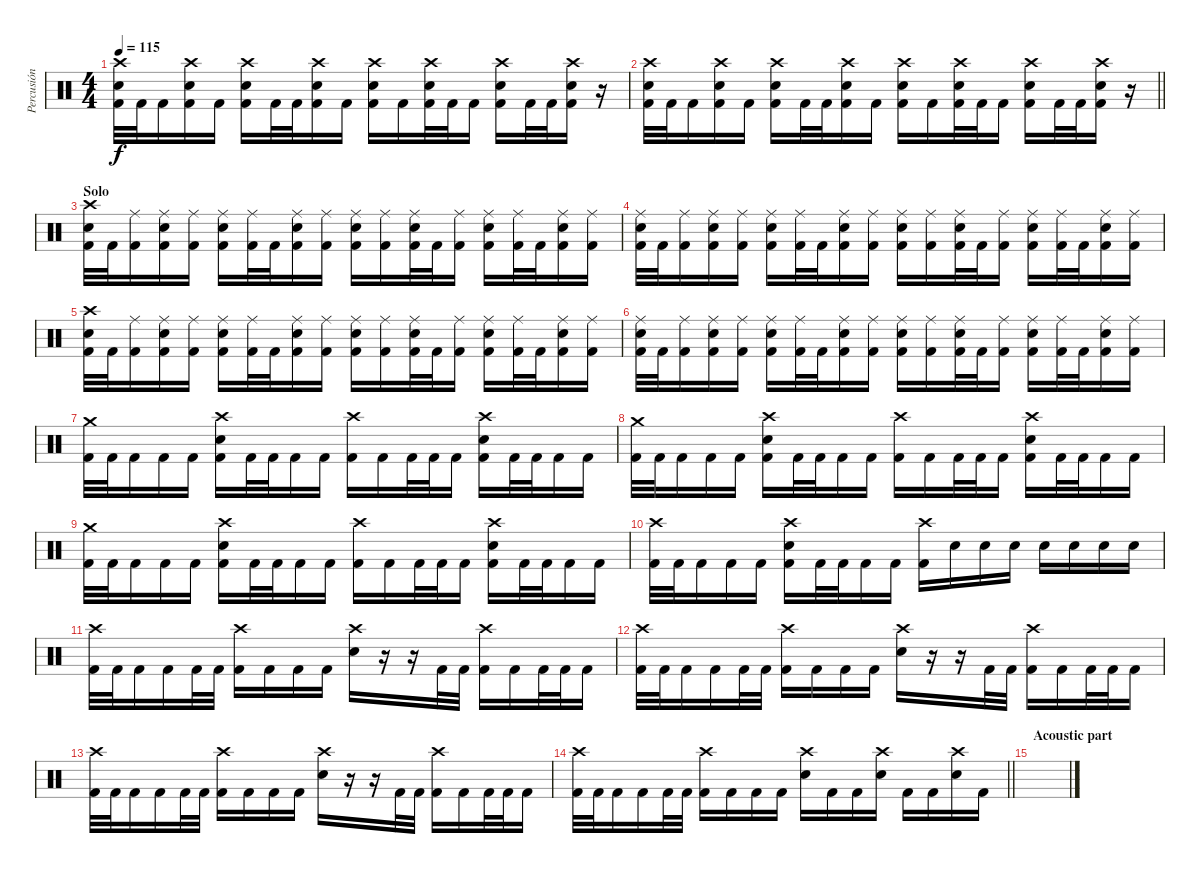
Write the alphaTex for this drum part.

\track ("Percusión" "Percusión") {instrument percussion}
\staff {score}
\articulation defaults
\ts (4 4)
\tempo 115
\clef neutral
\ks c
("Crash high (hit)" "Snare (hit) 2" "Kick (hit) 2").32{dy f} "Kick (hit) 2".32 "Kick (hit) 2".16 ("Crash high (hit)" "Snare (hit) 2" "Kick (hit) 2").16 "Kick (hit) 2".16 ("Crash high (hit)" "Snare (hit) 2" "Kick (hit) 2").16 "Kick (hit) 2".32 "Kick (hit) 2".32 ("Crash high (hit)" "Snare (hit) 2" "Kick (hit) 2").16 "Kick (hit) 2".16 ("Crash high (hit)" "Snare (hit) 2" "Kick (hit) 2").16 "Kick (hit) 2".16 ("Crash high (hit)" "Snare (hit) 2" "Kick (hit) 2").32 "Kick (hit) 2".32 "Kick (hit) 2".16 ("Crash high (hit)" "Snare (hit) 2" "Kick (hit) 2").16 "Kick (hit) 2".32 "Kick (hit) 2".32 ("Crash high (hit)" "Snare (hit) 2" "Kick (hit) 2").16 r.16 |
\barLineRight lightlight
("Crash high (hit)" "Snare (hit) 2" "Kick (hit) 2").32 "Kick (hit) 2".32 "Kick (hit) 2".16 ("Crash high (hit)" "Snare (hit) 2" "Kick (hit) 2").16 "Kick (hit) 2".16 ("Crash high (hit)" "Snare (hit) 2" "Kick (hit) 2").16 "Kick (hit) 2".32 "Kick (hit) 2".32 ("Crash high (hit)" "Snare (hit) 2" "Kick (hit) 2").16 "Kick (hit) 2".16 ("Crash high (hit)" "Snare (hit) 2" "Kick (hit) 2").16 "Kick (hit) 2".16 ("Crash high (hit)" "Snare (hit) 2" "Kick (hit) 2").32 "Kick (hit) 2".32 "Kick (hit) 2".16 ("Crash high (hit)" "Snare (hit) 2" "Kick (hit) 2").16 "Kick (hit) 2".32 "Kick (hit) 2".32 ("Crash high (hit)" "Snare (hit) 2" "Kick (hit) 2").16 r.16 |
\section ("" "Solo")
("Crash high (hit)" "Snare (hit) 2" "Kick (hit) 2").32 "Kick (hit) 2".32 ("Ride (middle)" "Kick (hit) 2").16 ("Ride (middle)" "Snare (hit) 2" "Kick (hit) 2").16 ("Ride (middle)" "Kick (hit) 2").16 ("Ride (middle)" "Snare (hit) 2" "Kick (hit) 2").16 ("Ride (middle)" "Kick (hit) 2").32 "Kick (hit) 2".32 ("Ride (middle)" "Snare (hit) 2" "Kick (hit) 2").16 ("Ride (middle)" "Kick (hit) 2").16 ("Ride (middle)" "Snare (hit) 2" "Kick (hit) 2").16 ("Ride (middle)" "Kick (hit) 2").16 ("Ride (middle)" "Snare (hit) 2" "Kick (hit) 2").32 "Kick (hit) 2".32 ("Ride (middle)" "Kick (hit) 2").16 ("Ride (middle)" "Snare (hit) 2" "Kick (hit) 2").16 ("Ride (middle)" "Kick (hit) 2").32 "Kick (hit) 2".32 ("Ride (middle)" "Snare (hit) 2" "Kick (hit) 2").16 ("Ride (middle)" "Kick (hit) 2").16 |
("Ride (middle)" "Snare (hit) 2" "Kick (hit) 2").32 "Kick (hit) 2".32 ("Ride (middle)" "Kick (hit) 2").16 ("Ride (middle)" "Snare (hit) 2" "Kick (hit) 2").16 ("Ride (middle)" "Kick (hit) 2").16 ("Ride (middle)" "Snare (hit) 2" "Kick (hit) 2").16 ("Ride (middle)" "Kick (hit) 2").32 "Kick (hit) 2".32 ("Ride (middle)" "Snare (hit) 2" "Kick (hit) 2").16 ("Ride (middle)" "Kick (hit) 2").16 ("Ride (middle)" "Snare (hit) 2" "Kick (hit) 2").16 ("Ride (middle)" "Kick (hit) 2").16 ("Ride (middle)" "Snare (hit) 2" "Kick (hit) 2").32 "Kick (hit) 2".32 ("Ride (middle)" "Kick (hit) 2").16 ("Ride (middle)" "Snare (hit) 2" "Kick (hit) 2").16 ("Ride (middle)" "Kick (hit) 2").32 "Kick (hit) 2".32 ("Ride (middle)" "Snare (hit) 2" "Kick (hit) 2").16 ("Ride (middle)" "Kick (hit) 2").16 |
("Crash high (hit)" "Snare (hit) 2" "Kick (hit) 2").32 "Kick (hit) 2".32 ("Ride (middle)" "Kick (hit) 2").16 ("Ride (middle)" "Snare (hit) 2" "Kick (hit) 2").16 ("Ride (middle)" "Kick (hit) 2").16 ("Ride (middle)" "Snare (hit) 2" "Kick (hit) 2").16 ("Ride (middle)" "Kick (hit) 2").32 "Kick (hit) 2".32 ("Ride (middle)" "Snare (hit) 2" "Kick (hit) 2").16 ("Ride (middle)" "Kick (hit) 2").16 ("Ride (middle)" "Snare (hit) 2" "Kick (hit) 2").16 ("Ride (middle)" "Kick (hit) 2").16 ("Ride (middle)" "Snare (hit) 2" "Kick (hit) 2").32 "Kick (hit) 2".32 ("Ride (middle)" "Kick (hit) 2").16 ("Ride (middle)" "Snare (hit) 2" "Kick (hit) 2").16 ("Ride (middle)" "Kick (hit) 2").32 "Kick (hit) 2".32 ("Ride (middle)" "Snare (hit) 2" "Kick (hit) 2").16 ("Ride (middle)" "Kick (hit) 2").16 |
("Ride (middle)" "Snare (hit) 2" "Kick (hit) 2").32 "Kick (hit) 2".32 ("Ride (middle)" "Kick (hit) 2").16 ("Ride (middle)" "Snare (hit) 2" "Kick (hit) 2").16 ("Ride (middle)" "Kick (hit) 2").16 ("Ride (middle)" "Snare (hit) 2" "Kick (hit) 2").16 ("Ride (middle)" "Kick (hit) 2").32 "Kick (hit) 2".32 ("Ride (middle)" "Snare (hit) 2" "Kick (hit) 2").16 ("Ride (middle)" "Kick (hit) 2").16 ("Ride (middle)" "Snare (hit) 2" "Kick (hit) 2").16 ("Ride (middle)" "Kick (hit) 2").16 ("Ride (middle)" "Snare (hit) 2" "Kick (hit) 2").32 "Kick (hit) 2".32 ("Ride (middle)" "Kick (hit) 2").16 ("Ride (middle)" "Snare (hit) 2" "Kick (hit) 2").16 ("Ride (middle)" "Kick (hit) 2").32 "Kick (hit) 2".32 ("Ride (middle)" "Snare (hit) 2" "Kick (hit) 2").16 ("Ride (middle)" "Kick (hit) 2").16 |
("Crash medium (hit)" "Kick (hit) 2").32 "Kick (hit) 2".32 "Kick (hit) 2".16 "Kick (hit) 2".16 "Kick (hit) 2".16 ("Crash high (hit)" "Snare (hit) 2" "Kick (hit) 2").16 "Kick (hit) 2".32 "Kick (hit) 2".32 "Kick (hit) 2".16 "Kick (hit) 2".16 ("Crash high (hit)" "Kick (hit) 2").16 "Kick (hit) 2".16 "Kick (hit) 2".32 "Kick (hit) 2".32 "Kick (hit) 2".16 ("Crash high (hit)" "Snare (hit) 2" "Kick (hit) 2").16 "Kick (hit) 2".32 "Kick (hit) 2".32 "Kick (hit) 2".16 "Kick (hit) 2".16 |
("Crash medium (hit)" "Kick (hit) 2").32 "Kick (hit) 2".32 "Kick (hit) 2".16 "Kick (hit) 2".16 "Kick (hit) 2".16 ("Crash high (hit)" "Snare (hit) 2" "Kick (hit) 2").16 "Kick (hit) 2".32 "Kick (hit) 2".32 "Kick (hit) 2".16 "Kick (hit) 2".16 ("Crash high (hit)" "Kick (hit) 2").16 "Kick (hit) 2".16 "Kick (hit) 2".32 "Kick (hit) 2".32 "Kick (hit) 2".16 ("Crash high (hit)" "Snare (hit) 2" "Kick (hit) 2").16 "Kick (hit) 2".32 "Kick (hit) 2".32 "Kick (hit) 2".16 "Kick (hit) 2".16 |
("Crash medium (hit)" "Kick (hit) 2").32 "Kick (hit) 2".32 "Kick (hit) 2".16 "Kick (hit) 2".16 "Kick (hit) 2".16 ("Crash high (hit)" "Snare (hit) 2" "Kick (hit) 2").16 "Kick (hit) 2".32 "Kick (hit) 2".32 "Kick (hit) 2".16 "Kick (hit) 2".16 ("Crash high (hit)" "Kick (hit) 2").16 "Kick (hit) 2".16 "Kick (hit) 2".32 "Kick (hit) 2".32 "Kick (hit) 2".16 ("Crash high (hit)" "Snare (hit) 2" "Kick (hit) 2").16 "Kick (hit) 2".32 "Kick (hit) 2".32 "Kick (hit) 2".16 "Kick (hit) 2".16 |
("Crash high (hit)" "Kick (hit) 2").32 "Kick (hit) 2".32 "Kick (hit) 2".16 "Kick (hit) 2".16 "Kick (hit) 2".16 ("Crash high (hit)" "Snare (hit) 2" "Kick (hit) 2").16 "Kick (hit) 2".32 "Kick (hit) 2".32 "Kick (hit) 2".16 "Kick (hit) 2".16 ("Crash high (hit)" "Kick (hit) 2").16 "Snare (hit) 2".16 "Snare (hit) 2".16 "Snare (hit) 2".16 "Snare (hit) 2".16 "Snare (hit) 2".16 "Snare (hit) 2".16 "Snare (hit) 2".16 |
("Crash high (hit)" "Kick (hit) 2").32 "Kick (hit) 2".32 "Kick (hit) 2".16 "Kick (hit) 2".16 "Kick (hit) 2".32 "Kick (hit) 2".32 ("Crash high (hit)" "Kick (hit) 2").16 "Kick (hit) 2".16 "Kick (hit) 2".16 "Kick (hit) 2".16 ("Crash high (hit)" "Snare (hit) 2").16 r.16 r.16 "Kick (hit) 2".32 "Kick (hit) 2".32 ("Crash high (hit)" "Kick (hit) 2").16 "Kick (hit) 2".16 "Kick (hit) 2".32 "Kick (hit) 2".32 "Kick (hit) 2".16 |
("Crash high (hit)" "Kick (hit) 2").32 "Kick (hit) 2".32 "Kick (hit) 2".16 "Kick (hit) 2".16 "Kick (hit) 2".32 "Kick (hit) 2".32 ("Crash high (hit)" "Kick (hit) 2").16 "Kick (hit) 2".16 "Kick (hit) 2".16 "Kick (hit) 2".16 ("Crash high (hit)" "Snare (hit) 2").16 r.16 r.16 "Kick (hit) 2".32 "Kick (hit) 2".32 ("Crash high (hit)" "Kick (hit) 2").16 "Kick (hit) 2".16 "Kick (hit) 2".32 "Kick (hit) 2".32 "Kick (hit) 2".16 |
("Crash high (hit)" "Kick (hit) 2").32 "Kick (hit) 2".32 "Kick (hit) 2".16 "Kick (hit) 2".16 "Kick (hit) 2".32 "Kick (hit) 2".32 ("Crash high (hit)" "Kick (hit) 2").16 "Kick (hit) 2".16 "Kick (hit) 2".16 "Kick (hit) 2".16 ("Crash high (hit)" "Snare (hit) 2").16 r.16 r.16 "Kick (hit) 2".32 "Kick (hit) 2".32 ("Crash high (hit)" "Kick (hit) 2").16 "Kick (hit) 2".16 "Kick (hit) 2".32 "Kick (hit) 2".32 "Kick (hit) 2".16 |
\barLineRight lightlight
("Crash high (hit)" "Kick (hit) 2").32 "Kick (hit) 2".32 "Kick (hit) 2".16 "Kick (hit) 2".16 "Kick (hit) 2".32 "Kick (hit) 2".32 ("Crash high (hit)" "Kick (hit) 2").16 "Kick (hit) 2".16 "Kick (hit) 2".16 "Kick (hit) 2".16 ("Crash high (hit)" "Snare (hit) 2").16 "Kick (hit) 2".16 "Kick (hit) 2".16 ("Crash high (hit)" "Snare (hit) 2").16 "Kick (hit) 2".16 "Kick (hit) 2".16 ("Crash high (hit)" "Snare (hit) 2").16 "Kick (hit) 2".16 |
\section ("" "Acoustic part")
